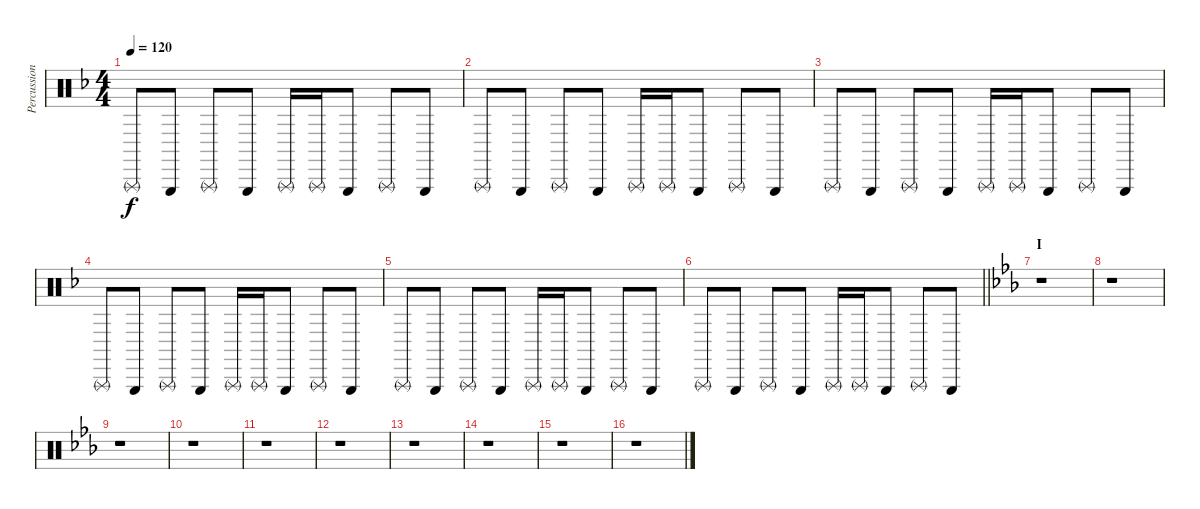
\track ("Percussion" "Percussion") {instrument percussion}
\staff {score}
\articulation defaults
\ts (4 4)
\tempo 120
\clef neutral
\ks f "Triangle (rnute)".8{dy f} "Triangle (hit)".8 "Triangle (rnute)".8 "Triangle (hit)".8 "Triangle (rnute)".16 "Triangle (rnute)".16 "Triangle (hit)".8 "Triangle (rnute)".8 "Triangle (hit)".8
|
"Triangle (rnute)".8 "Triangle (hit)".8 "Triangle (rnute)".8 "Triangle (hit)".8 "Triangle (rnute)".16 "Triangle (rnute)".16 "Triangle (hit)".8 "Triangle (rnute)".8 "Triangle (hit)".8 |
"Triangle (rnute)".8 "Triangle (hit)".8 "Triangle (rnute)".8 "Triangle (hit)".8 "Triangle (rnute)".16 "Triangle (rnute)".16 "Triangle (hit)".8 "Triangle (rnute)".8 "Triangle (hit)".8 |
"Triangle (rnute)".8 "Triangle (hit)".8 "Triangle (rnute)".8 "Triangle (hit)".8 "Triangle (rnute)".16 "Triangle (rnute)".16 "Triangle (hit)".8 "Triangle (rnute)".8 "Triangle (hit)".8 |
"Triangle (rnute)".8 "Triangle (hit)".8 "Triangle (rnute)".8 "Triangle (hit)".8 "Triangle (rnute)".16 "Triangle (rnute)".16 "Triangle (hit)".8 "Triangle (rnute)".8 "Triangle (hit)".8 |
\barLineRight lightlight "Triangle (rnute)".8 "Triangle (hit)".8 "Triangle (rnute)".8 "Triangle (hit)".8 "Triangle (rnute)".16 "Triangle (rnute)".16 "Triangle (hit)".8 "Triangle (rnute)".8 "Triangle (hit)".8
|
\section ("" "I")
\ks eb
r.1 |
r.1 |
r.1 |
r.1 |
r.1 |
r.1 |
r.1 |
r.1 |
r.1 |
r.1
